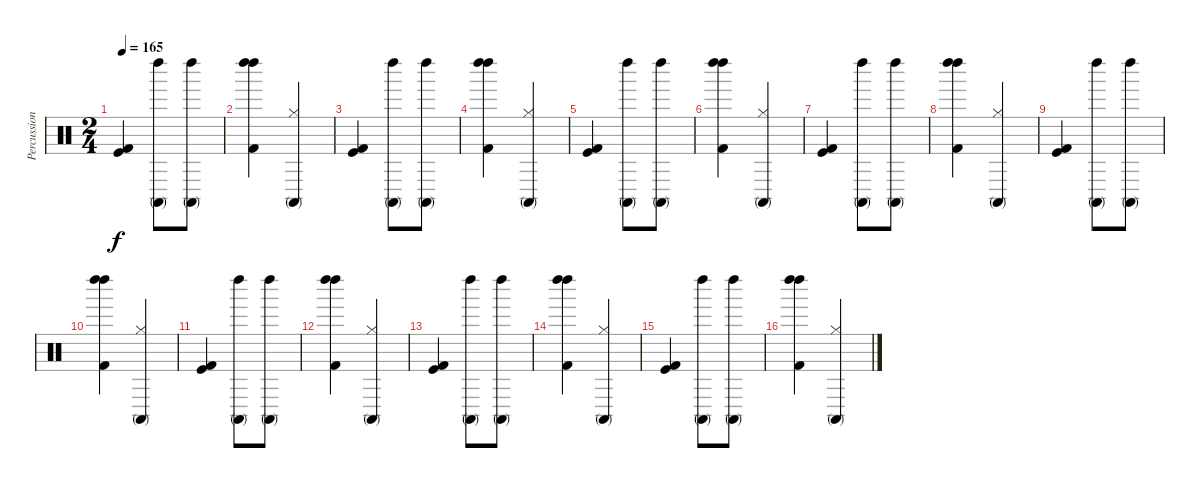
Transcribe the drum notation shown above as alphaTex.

\track ("Percussion" "Percussion") {instrument percussion}
\staff {score}
\articulation defaults
\ts (2 4)
\tempo 165
\clef neutral
\ks c
("Kick (hit)" "Kick (hit) 2").4{dy f} ("Conga high (mute)" "Left Maraca (hit)").8 ("Conga high (mute)" "Left Maraca (hit)").8 |
("Left Maraca (hit)" "Left Maraca (hit)" "Kick (hit) 2").4 ("Conga high (mute)" "Hi-Hat (closed)").4 |
("Kick (hit)" "Kick (hit) 2").4 ("Conga high (mute)" "Left Maraca (hit)").8 ("Conga high (mute)" "Left Maraca (hit)").8 |
("Left Maraca (hit)" "Left Maraca (hit)" "Kick (hit) 2").4 ("Conga high (mute)" "Hi-Hat (closed)").4 |
("Kick (hit)" "Kick (hit) 2").4 ("Conga high (mute)" "Left Maraca (hit)").8 ("Conga high (mute)" "Left Maraca (hit)").8 |
("Left Maraca (hit)" "Left Maraca (hit)" "Kick (hit) 2").4 ("Conga high (mute)" "Hi-Hat (closed)").4 |
("Kick (hit)" "Kick (hit) 2").4 ("Conga high (mute)" "Left Maraca (hit)").8 ("Conga high (mute)" "Left Maraca (hit)").8 |
("Left Maraca (hit)" "Left Maraca (hit)" "Kick (hit) 2").4 ("Conga high (mute)" "Hi-Hat (closed)").4 |
("Kick (hit)" "Kick (hit) 2").4 ("Conga high (mute)" "Left Maraca (hit)").8 ("Conga high (mute)" "Left Maraca (hit)").8 |
("Left Maraca (hit)" "Left Maraca (hit)" "Kick (hit) 2").4 ("Conga high (mute)" "Hi-Hat (closed)").4 |
("Kick (hit)" "Kick (hit) 2").4 ("Conga high (mute)" "Left Maraca (hit)").8 ("Conga high (mute)" "Left Maraca (hit)").8 |
("Left Maraca (hit)" "Left Maraca (hit)" "Kick (hit) 2").4 ("Conga high (mute)" "Hi-Hat (closed)").4 |
("Kick (hit)" "Kick (hit) 2").4 ("Conga high (mute)" "Left Maraca (hit)").8 ("Conga high (mute)" "Left Maraca (hit)").8 |
("Left Maraca (hit)" "Left Maraca (hit)" "Kick (hit) 2").4 ("Conga high (mute)" "Hi-Hat (closed)").4 |
("Kick (hit)" "Kick (hit) 2").4 ("Conga high (mute)" "Left Maraca (hit)").8 ("Conga high (mute)" "Left Maraca (hit)").8 |
("Left Maraca (hit)" "Left Maraca (hit)" "Kick (hit) 2").4 ("Conga high (mute)" "Hi-Hat (closed)").4
